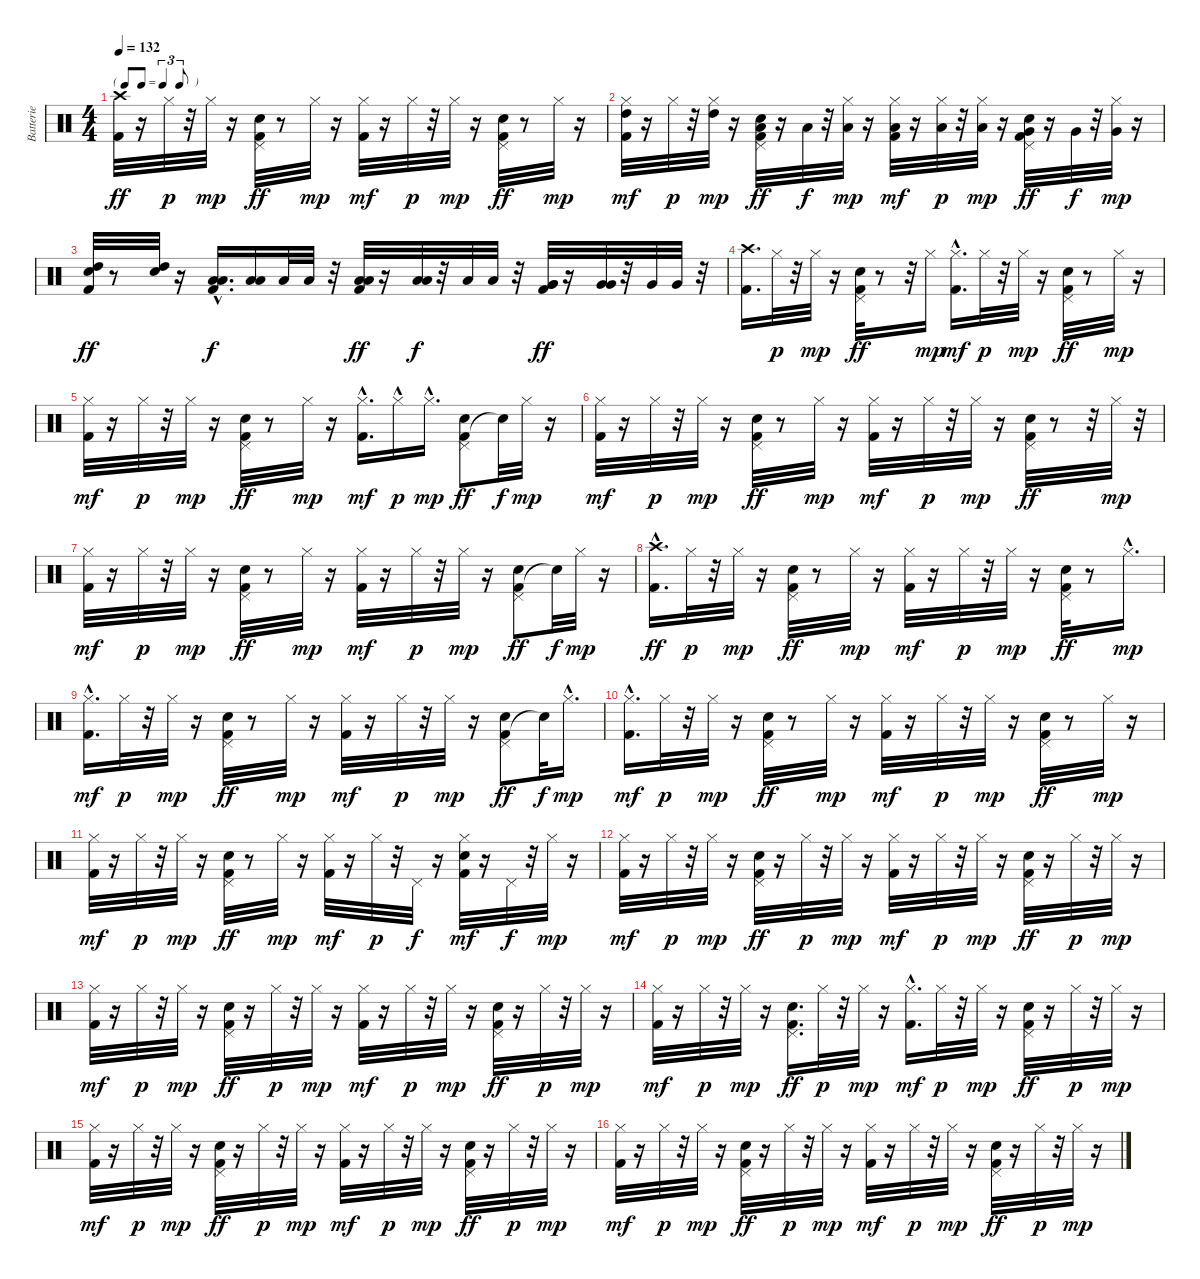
\track ("Batterie" "Batterie") {instrument percussion}
\staff {score}
\articulation defaults
\ts (4 4)
\tf triplet8th
\tempo 132
\clef neutral
\ks c
("Kick (hit) 2" "Crash high (hit)").32{dy ff} r.16 "Hi-Hat (closed)".32{dy p} r.32 "Hi-Hat (closed)".32{dy mp} r.16 ("Kick (hit) 2" "Snare (hit) 2" "Pedal Hi-Hat (hit)").32{dy ff} r.8 "Hi-Hat (closed)".32{dy mp} r.16 ("Kick (hit) 2" "Hi-Hat (closed)").32{dy mf} r.16 "Hi-Hat (closed)".32{dy p} r.32 "Hi-Hat (closed)".32{dy mp} r.16 ("Kick (hit) 2" "Snare (hit) 2" "Pedal Hi-Hat (hit)").32{dy ff} r.8 "Hi-Hat (closed)".32{dy mp} r.16 |
("Kick (hit) 2" "Hi-Hat (closed)" "High Tom (hit)").32{dy mf} r.16 "Hi-Hat (closed)".32{dy p} r.32 ("Hi-Hat (closed)" "High Tom (hit)").32{dy mp} r.16 ("Kick (hit) 2" "Snare (hit) 2" "Pedal Hi-Hat (hit)" "Low Tom (hit)").32{dy ff} r.16 "Low Tom (hit)".32{dy f} r.32 ("Hi-Hat (closed)" "Low Tom (hit)").32{dy mp} r.16 ("Kick (hit) 2" "Hi-Hat (closed)" "Low Floor Tom (hit)").32{dy mf} r.16 ("Hi-Hat (closed)" "Low Floor Tom (hit)").32{dy p} r.32 ("Hi-Hat (closed)" "Low Floor Tom (hit)").32{dy mp} r.16 ("Kick (hit) 2" "Snare (hit) 2" "Pedal Hi-Hat (hit)" "Very Low Tom (hit)").32{dy ff} r.16 "Very Low Tom (hit)".32{dy f} r.32 ("Hi-Hat (closed)" "Very Low Tom (hit)").32{dy mp} r.16 |
("Kick (hit) 2" "Snare (hit) 2" "High Tom (hit)").32{dy ff} r.8 ("Snare (hit) 2" "High Tom (hit)").32 r.16 ("Kick (hit) 2" "Low Tom (hit)" "Low Tom (hit)"{hac}).16{d dy f} ("Low Tom (hit)" "Low Tom (hit)").16 "Low Tom (hit)".32 "Low Tom (hit)".32 r.32 ("Kick (hit) 2" "Low Floor Tom (hit)" "Low Floor Tom (hit)").32{dy ff} r.16 ("Low Floor Tom (hit)" "Low Floor Tom (hit)").32{dy f} r.32 "Low Floor Tom (hit)".32 "Low Floor Tom (hit)".32 r.32 ("Kick (hit) 2" "Very Low Tom (hit)" "Very Low Tom (hit)").32{dy ff} r.16 ("Very Low Tom (hit)" "Very Low Tom (hit)").32 r.32 "Very Low Tom (hit)".32 "Very Low Tom (hit)".32 r.32 |
("Kick (hit) 2" "Crash high (hit)").16{d} "Hi-Hat (closed)".32{dy p} r.32 "Hi-Hat (closed)".32{dy mp} r.16 ("Kick (hit) 2" "Snare (hit) 2" "Pedal Hi-Hat (hit)").32{dy ff} r.8 r.32 "Hi-Hat (closed)".16{dy mp} ("Kick (hit) 2" "Hi-Hat (closed)"{hac}).16{d dy mf} "Hi-Hat (closed)".32{dy p} r.32 "Hi-Hat (closed)".32{dy mp} r.16 ("Kick (hit) 2" "Snare (hit) 2" "Pedal Hi-Hat (hit)").32{dy ff} r.8 "Hi-Hat (closed)".32{dy mp} r.16 |
("Kick (hit) 2" "Hi-Hat (closed)").32{dy mf} r.16 "Hi-Hat (closed)".32{dy p} r.32 "Hi-Hat (closed)".32{dy mp} r.16 ("Kick (hit) 2" "Snare (hit) 2" "Pedal Hi-Hat (hit)").32{dy ff} r.8 "Hi-Hat (closed)".32{dy mp} r.16 ("Kick (hit) 2"{hac} "Hi-Hat (closed)"{hac}).16{d dy mf} "Hi-Hat (closed)"{hac}.16{dy p} "Hi-Hat (closed)"{hac}.16{d dy mp} ("Kick (hit) 2" "Snare (hit) 2" "Pedal Hi-Hat (hit)").8{dy ff} "Snare (hit)"{t}.32{dy f} "Hi-Hat (closed)".32{dy mp} r.16 |
("Kick (hit) 2" "Hi-Hat (closed)").32{dy mf} r.16 "Hi-Hat (closed)".32{dy p} r.32 "Hi-Hat (closed)".32{dy mp} r.16 ("Kick (hit) 2" "Snare (hit) 2" "Pedal Hi-Hat (hit)").32{dy ff} r.8 "Hi-Hat (closed)".32{dy mp} r.16 ("Kick (hit) 2" "Hi-Hat (closed)").32{dy mf} r.16 "Hi-Hat (closed)".32{dy p} r.32 "Hi-Hat (closed)".32{dy mp} r.16 ("Kick (hit) 2" "Snare (hit) 2" "Pedal Hi-Hat (hit)").32{dy ff} r.8 r.32 "Hi-Hat (closed)".32{dy mp} r.32 |
("Kick (hit) 2" "Hi-Hat (closed)").32{dy mf} r.16 "Hi-Hat (closed)".32{dy p} r.32 "Hi-Hat (closed)".32{dy mp} r.16 ("Kick (hit) 2" "Snare (hit) 2" "Pedal Hi-Hat (hit)").32{dy ff} r.8 "Hi-Hat (closed)".32{dy mp} r.16 ("Kick (hit) 2" "Hi-Hat (closed)").32{dy mf} r.16 "Hi-Hat (closed)".32{dy p} r.32 "Hi-Hat (closed)".32{dy mp} r.16 ("Kick (hit) 2" "Snare (hit) 2" "Pedal Hi-Hat (hit)").8{dy ff} "Snare (hit)"{t}.32{dy f} "Hi-Hat (closed)".32{dy mp} r.16 |
("Kick (hit) 2"{hac} "Crash high (hit)"{hac}).16{d dy ff} "Hi-Hat (closed)".32{dy p} r.32 "Hi-Hat (closed)".32{dy mp} r.16 ("Kick (hit) 2" "Snare (hit) 2" "Pedal Hi-Hat (hit)").32{dy ff} r.8 "Hi-Hat (closed)".32{dy mp} r.16 ("Kick (hit) 2" "Hi-Hat (closed)").32{dy mf} r.16 "Hi-Hat (closed)".32{dy p} r.32 "Hi-Hat (closed)".32{dy mp} r.16 ("Kick (hit) 2" "Snare (hit) 2" "Pedal Hi-Hat (hit)").32{dy ff} r.8 "Hi-Hat (closed)"{hac}.16{d dy mp} |
("Kick (hit) 2" "Hi-Hat (closed)"{hac}).16{d dy mf} "Hi-Hat (closed)".32{dy p} r.32 "Hi-Hat (closed)".32{dy mp} r.16 ("Kick (hit) 2" "Snare (hit) 2" "Pedal Hi-Hat (hit)").32{dy ff} r.8 "Hi-Hat (closed)".32{dy mp} r.16 ("Kick (hit) 2" "Hi-Hat (closed)").32{dy mf} r.16 "Hi-Hat (closed)".32{dy p} r.32 "Hi-Hat (closed)".32{dy mp} r.16 ("Kick (hit) 2" "Snare (hit) 2" "Pedal Hi-Hat (hit)").8{dy ff} "Snare (hit)"{t}.32{dy f} "Hi-Hat (closed)"{hac}.16{d dy mp} |
("Kick (hit) 2"{hac} "Hi-Hat (closed)"{hac}).16{d dy mf} "Hi-Hat (closed)".32{dy p} r.32 "Hi-Hat (closed)".32{dy mp} r.16 ("Kick (hit) 2" "Snare (hit) 2" "Pedal Hi-Hat (hit)").32{dy ff} r.8 "Hi-Hat (closed)".32{dy mp} r.16 ("Kick (hit) 2" "Hi-Hat (closed)").32{dy mf} r.16 "Hi-Hat (closed)".32{dy p} r.32 "Hi-Hat (closed)".32{dy mp} r.16 ("Kick (hit) 2" "Snare (hit) 2" "Pedal Hi-Hat (hit)").32{dy ff} r.8 "Hi-Hat (closed)".32{dy mp} r.16 |
("Kick (hit) 2" "Hi-Hat (closed)").32{dy mf} r.16 "Hi-Hat (closed)".32{dy p} r.32 "Hi-Hat (closed)".32{dy mp} r.16 ("Kick (hit) 2" "Snare (hit) 2" "Pedal Hi-Hat (hit)").32{dy ff} r.8 "Hi-Hat (closed)".32{dy mp} r.16 ("Kick (hit) 2" "Hi-Hat (closed)").32{dy mf} r.16 "Hi-Hat (closed)".32{dy p} r.32 "Pedal Hi-Hat (hit)".32{dy f} r.16 ("Kick (hit) 2" "Snare (hit) 2" "Hi-Hat (closed)").32{dy mf} r.16 "Pedal Hi-Hat (hit)".32{dy f} r.32 "Hi-Hat (closed)".32{dy mp} r.16 |
("Kick (hit) 2" "Hi-Hat (closed)").32{dy mf} r.16 "Hi-Hat (closed)".32{dy p} r.32 "Hi-Hat (closed)".32{dy mp} r.16 ("Kick (hit) 2" "Snare (hit) 2" "Pedal Hi-Hat (hit)").32{dy ff} r.16 "Hi-Hat (closed)".32{dy p} r.32 "Hi-Hat (closed)".32{dy mp} r.16 ("Kick (hit) 2" "Hi-Hat (closed)").32{dy mf} r.16 "Hi-Hat (closed)".32{dy p} r.32 "Hi-Hat (closed)".32{dy mp} r.16 ("Kick (hit) 2" "Snare (hit) 2" "Pedal Hi-Hat (hit)").32{dy ff} r.16 "Hi-Hat (closed)".32{dy p} r.32 "Hi-Hat (closed)".32{dy mp} r.16 |
("Kick (hit) 2" "Hi-Hat (closed)").32{dy mf} r.16 "Hi-Hat (closed)".32{dy p} r.32 "Hi-Hat (closed)".32{dy mp} r.16 ("Kick (hit) 2" "Snare (hit) 2" "Pedal Hi-Hat (hit)").32{dy ff} r.16 "Hi-Hat (closed)".32{dy p} r.32 "Hi-Hat (closed)".32{dy mp} r.16 ("Kick (hit) 2" "Hi-Hat (closed)").32{dy mf} r.16 "Hi-Hat (closed)".32{dy p} r.32 "Hi-Hat (closed)".32{dy mp} r.16 ("Kick (hit) 2" "Snare (hit) 2" "Pedal Hi-Hat (hit)").32{dy ff} r.16 "Hi-Hat (closed)".32{dy p} r.32 "Hi-Hat (closed)".32{dy mp} r.16 |
("Kick (hit) 2" "Hi-Hat (closed)").32{dy mf} r.16 "Hi-Hat (closed)".32{dy p} r.32 "Hi-Hat (closed)".32{dy mp} r.16 ("Kick (hit) 2" "Snare (hit) 2" "Pedal Hi-Hat (hit)").16{d dy ff} "Hi-Hat (closed)".32{dy p} r.32 "Hi-Hat (closed)".32{dy mp} r.16 ("Kick (hit) 2"{hac} "Hi-Hat (closed)").16{d dy mf} "Hi-Hat (closed)".32{dy p} r.32 "Hi-Hat (closed)".32{dy mp} r.16 ("Kick (hit) 2" "Snare (hit) 2" "Pedal Hi-Hat (hit)").32{dy ff} r.16 "Hi-Hat (closed)".32{dy p} r.32 "Hi-Hat (closed)".32{dy mp} r.16 |
("Kick (hit) 2" "Hi-Hat (closed)").32{dy mf} r.16 "Hi-Hat (closed)".32{dy p} r.32 "Hi-Hat (closed)".32{dy mp} r.16 ("Kick (hit) 2" "Snare (hit) 2" "Pedal Hi-Hat (hit)").32{dy ff} r.16 "Hi-Hat (closed)".32{dy p} r.32 "Hi-Hat (closed)".32{dy mp} r.16 ("Kick (hit) 2" "Hi-Hat (closed)").32{dy mf} r.16 "Hi-Hat (closed)".32{dy p} r.32 "Hi-Hat (closed)".32{dy mp} r.16 ("Kick (hit) 2" "Snare (hit) 2" "Pedal Hi-Hat (hit)").32{dy ff} r.16 "Hi-Hat (closed)".32{dy p} r.32 "Hi-Hat (closed)".32{dy mp} r.16 |
("Kick (hit) 2" "Hi-Hat (closed)").32{dy mf} r.16 "Hi-Hat (closed)".32{dy p} r.32 "Hi-Hat (closed)".32{dy mp} r.16 ("Kick (hit) 2" "Snare (hit) 2" "Pedal Hi-Hat (hit)").32{dy ff} r.16 "Hi-Hat (closed)".32{dy p} r.32 "Hi-Hat (closed)".32{dy mp} r.16 ("Kick (hit) 2" "Hi-Hat (closed)").32{dy mf} r.16 "Hi-Hat (closed)".32{dy p} r.32 "Hi-Hat (closed)".32{dy mp} r.16 ("Kick (hit) 2" "Snare (hit) 2" "Pedal Hi-Hat (hit)").32{dy ff} r.16 "Hi-Hat (closed)".32{dy p} r.32 "Hi-Hat (closed)".32{dy mp} r.16
